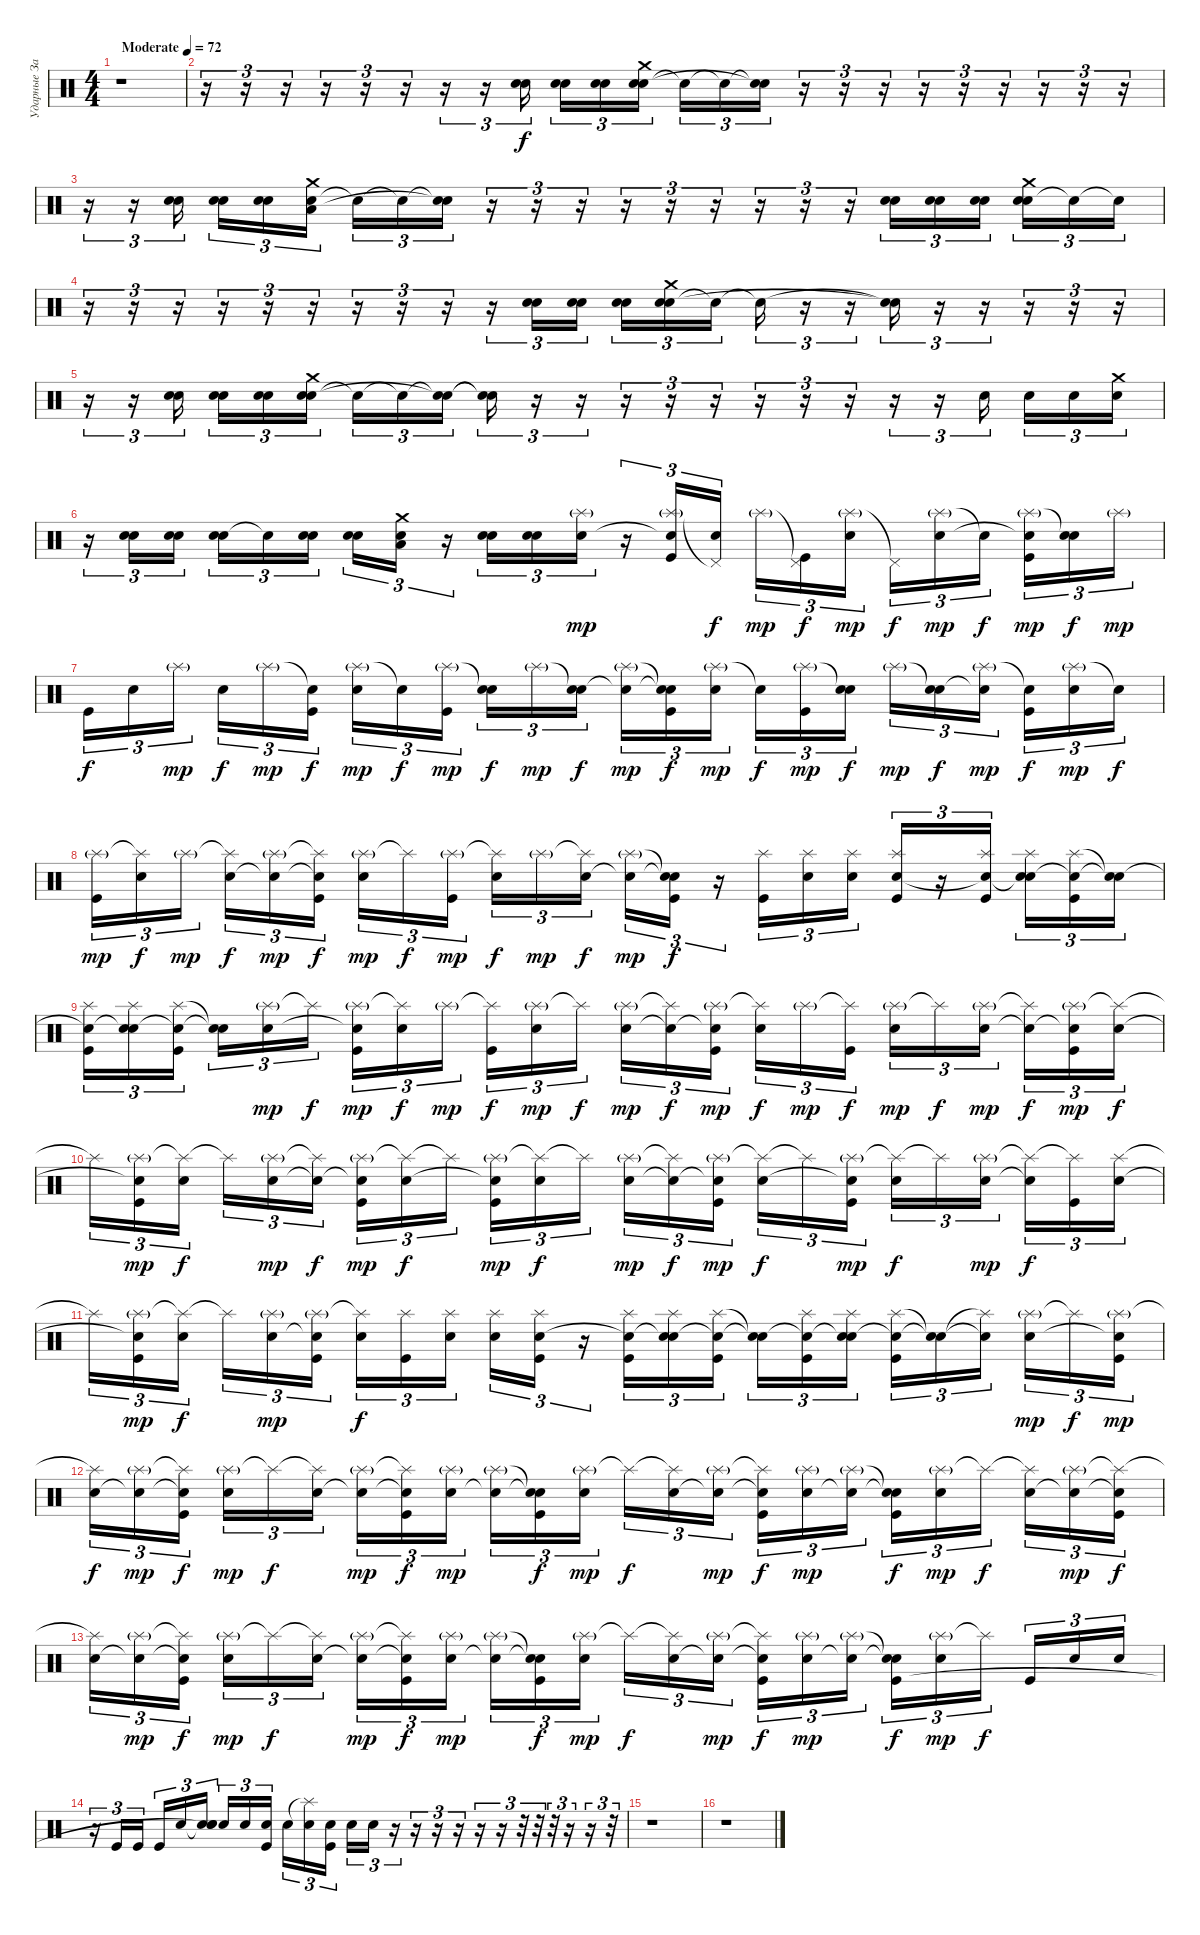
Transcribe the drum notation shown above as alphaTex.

\track ("Ударные Запарили(" "Ударные За") {instrument percussion}
\staff {score}
\articulation defaults
\ts (4 4)
\tempo (72 "Moderate")
\clef neutral
\ks c
r.1{dy f} |
r.16{tu (3 2)} r.16{tu (3 2)} r.16{tu (3 2)} r.16{tu (3 2)} r.16{tu (3 2)} r.16{tu (3 2)} r.16{tu (3 2)} r.16{tu (3 2)} ("Electric Snare (hit)" "Snare (hit) 2").16{tu (3 2) beam splitsecondary} ("Snare (hit) 2" "Electric Snare (hit)").16{tu (3 2)} ("Electric Snare (hit)" "Snare (hit) 2").16{tu (3 2)} ("Snare (hit) 2" "Electric Snare (hit)" "Crash medium (hit)").16{tu (3 2)} "Snare (hit)"{t}.16{tu (3 2)} "Snare (hit)"{t}.16{tu (3 2)} ("Snare (hit)"{t} "Snare (hit)"{t}).16{tu (3 2)} r.16{tu (3 2)} r.16{tu (3 2)} r.16{tu (3 2)} r.16{tu (3 2)} r.16{tu (3 2)} r.16{tu (3 2)} r.16{tu (3 2)} r.16{tu (3 2)} r.16{tu (3 2)} |
r.16{tu (3 2)} r.16{tu (3 2)} ("Snare (hit) 2" "Electric Snare (hit)").16{tu (3 2) beam splitsecondary} ("Electric Snare (hit)" "Snare (hit) 2").16{tu (3 2)} ("Snare (hit) 2" "Electric Snare (hit)").16{tu (3 2)} ("Electric Snare (hit)" "Low Tom (hit)" "Crash medium (hit)").16{tu (3 2)} "Snare (hit)"{t}.16{tu (3 2)} "Snare (hit)"{t}.16{tu (3 2)} ("Snare (hit)"{t} "Snare (hit)"{t}).16{tu (3 2)} r.16{tu (3 2)} r.16{tu (3 2)} r.16{tu (3 2)} r.16{tu (3 2)} r.16{tu (3 2)} r.16{tu (3 2)} r.16{tu (3 2)} r.16{tu (3 2)} r.16{tu (3 2)} ("Electric Snare (hit)" "Snare (hit) 2").16{tu (3 2)} ("Snare (hit) 2" "Electric Snare (hit)").16{tu (3 2)} ("Electric Snare (hit)" "Snare (hit) 2").16{tu (3 2) beam splitsecondary} ("Electric Snare (hit)" "Snare (hit) 2" "Crash medium (hit)").16{tu (3 2)} "Snare (hit)"{t}.16{tu (3 2)} "Snare (hit)"{t}.16{tu (3 2)} |
r.16{tu (3 2)} r.16{tu (3 2)} r.16{tu (3 2)} r.16{tu (3 2)} r.16{tu (3 2)} r.16{tu (3 2)} r.16{tu (3 2)} r.16{tu (3 2)} r.16{tu (3 2)} r.16{tu (3 2)} ("Electric Snare (hit)" "Snare (hit) 2").16{tu (3 2)} ("Electric Snare (hit)" "Snare (hit) 2").16{tu (3 2)} ("Snare (hit) 2" "Electric Snare (hit)").16{tu (3 2)} ("Electric Snare (hit)" "Hand Clap (hit)" "Crash medium (hit)").16{tu (3 2)} "Snare (hit)"{t}.16{tu (3 2) beam splitsecondary} "Snare (hit)"{t}.16{tu (3 2)} r.16{tu (3 2)} r.16{tu (3 2)} ("Snare (hit)"{t} "Snare (hit)"{t}).16{tu (3 2)} r.16{tu (3 2)} r.16{tu (3 2)} r.16{tu (3 2)} r.16{tu (3 2)} r.16{tu (3 2)} |
r.16{tu (3 2)} r.16{tu (3 2)} ("Electric Snare (hit)" "Snare (hit) 2").16{tu (3 2) beam splitsecondary} ("Electric Snare (hit)" "Snare (hit) 2").16{tu (3 2)} ("Snare (hit) 2" "Electric Snare (hit)").16{tu (3 2)} ("Electric Snare (hit)" "Snare (hit) 2" "Crash medium (hit)").16{tu (3 2)} "Snare (hit)"{t}.16{tu (3 2)} "Snare (hit)"{t}.16{tu (3 2)} ("Snare (hit)"{t} "Snare (hit)"{t}).16{tu (3 2) beam splitsecondary} ("Snare (hit)"{t} "Snare (hit)"{t}).16{tu (3 2)} r.16{tu (3 2)} r.16{tu (3 2)} r.16{tu (3 2)} r.16{tu (3 2)} r.16{tu (3 2)} r.16{tu (3 2)} r.16{tu (3 2)} r.16{tu (3 2)} r.16{tu (3 2)} r.16{tu (3 2)} "Electric Snare (hit)".16{tu (3 2) beam splitsecondary} "Electric Snare (hit)".16{tu (3 2)} "Snare (hit) 2".16{tu (3 2)} ("Electric Snare (hit)" "Crash medium (hit)").16{tu (3 2)} |
r.16{tu (3 2)} ("Electric Snare (hit)" "Snare (hit) 2").16{tu (3 2)} ("Electric Snare (hit)" "Snare (hit) 2").16{tu (3 2) beam splitsecondary} ("Snare (hit) 2" "Electric Snare (hit)").16{tu (3 2)} "Electric Snare (hit)"{t}.16{tu (3 2)} ("Electric Snare (hit)" "Snare (hit) 2").16{tu (3 2)} ("Electric Snare (hit)" "Snare (hit) 2").16{tu (3 2)} ("Electric Snare (hit)" "Low Floor Tom (hit)" "Crash medium (hit)").16{tu (3 2)} r.16{tu (3 2)} ("Electric Snare (hit)" "Snare (hit) 2").16{tu (3 2)} ("Electric Snare (hit)" "Snare (hit) 2").16{tu (3 2)} ("Splash (hit)"{g} "Snare (hit) 2").16{tu (3 2) dy mp} r.16{tu (3 2)} ("Splash (hit)"{g} "Snare (hit) 2"{t} "Kick (hit)").16{tu (3 2)} ("Pedal Hi-Hat (hit)"{t} "Snare (hit) 2").16{tu (3 2) dy f beam splitsecondary} "Splash (hit)"{g}.16{tu (3 2) dy mp} ("Pedal Hi-Hat (hit)"{t} "Kick (hit)").16{tu (3 2) dy f} ("Splash (hit)"{g} "Snare (hit) 2").16{tu (3 2) dy mp} "Pedal Hi-Hat (hit)"{t}.16{tu (3 2) dy f} ("Splash (hit)"{g} "Snare (hit) 2").16{tu (3 2) dy mp} "Snare (hit) 2"{t}.16{tu (3 2) dy f beam splitsecondary} ("Splash (hit)"{g} "Snare (hit) 2"{t} "Kick (hit)").16{tu (3 2) dy mp} ("Snare (hit)"{t} "Snare (hit) 2").16{tu (3 2) dy f} "Splash (hit)"{g}.16{tu (3 2) dy mp} |
"Kick (hit)".16{tu (3 2) dy f} "Snare (hit) 2".16{tu (3 2)} "Splash (hit)"{g}.16{tu (3 2) dy mp beam splitsecondary} "Snare (hit) 2".16{tu (3 2) dy f} "Splash (hit)"{g}.16{tu (3 2) dy mp} ("Snare (hit) 2"{t} "Kick (hit)").16{tu (3 2) dy f} ("Splash (hit)"{g} "Snare (hit) 2").16{tu (3 2) dy mp} "Snare (hit)"{t}.16{tu (3 2) dy f} ("Splash (hit)"{g} "Kick (hit)").16{tu (3 2) dy mp beam splitsecondary} ("Snare (hit)"{t} "Snare (hit) 2").16{tu (3 2) dy f} "Splash (hit)"{g}.16{tu (3 2) dy mp} ("Snare (hit)"{t} "Snare (hit) 2").16{tu (3 2) dy f} ("Splash (hit)"{g} "Snare (hit) 2"{t}).16{tu (3 2) dy mp} ("Snare (hit)"{t} "Snare (hit) 2"{t} "Kick (hit)").16{tu (3 2) dy f} ("Splash (hit)"{g} "Snare (hit) 2").16{tu (3 2) dy mp beam splitsecondary} "Snare (hit)"{t}.16{tu (3 2) dy f} ("Splash (hit)"{g} "Kick (hit)").16{tu (3 2) dy mp} ("Snare (hit)"{t} "Snare (hit) 2").16{tu (3 2) dy f} "Splash (hit)"{g}.16{tu (3 2) dy mp} ("Snare (hit)"{t} "Snare (hit) 2").16{tu (3 2) dy f} ("Splash (hit)"{g} "Snare (hit) 2"{t}).16{tu (3 2) dy mp beam splitsecondary} ("Snare (hit) 2"{t} "Kick (hit)").16{tu (3 2) dy f} ("Splash (hit)"{g} "Snare (hit) 2").16{tu (3 2) dy mp} "Snare (hit)"{t}.16{tu (3 2) dy f} |
("Splash (hit)"{g} "Kick (hit)").16{tu (3 2) dy mp} ("Splash (hit)"{t} "Snare (hit) 2").16{tu (3 2) dy f} "Splash (hit)"{g}.16{tu (3 2) dy mp beam splitsecondary} ("Splash (hit)"{t} "Snare (hit) 2").16{tu (3 2) dy f} ("Splash (hit)"{g} "Snare (hit) 2"{t}).16{tu (3 2) dy mp} ("Splash (hit)"{t} "Snare (hit) 2"{t} "Kick (hit)").16{tu (3 2) dy f} ("Splash (hit)"{g} "Snare (hit) 2").16{tu (3 2) dy mp} "Splash (hit)"{t}.16{tu (3 2) dy f} ("Splash (hit)"{g} "Kick (hit)").16{tu (3 2) dy mp beam splitsecondary} ("Splash (hit)"{t} "Snare (hit) 2").16{tu (3 2) dy f} "Splash (hit)"{g}.16{tu (3 2) dy mp} ("Splash (hit)"{t} "Snare (hit) 2").16{tu (3 2) dy f} ("Splash (hit)"{g} "Snare (hit) 2"{t}).16{tu (3 2) dy mp} ("Snare (hit)"{t} "Snare (hit) 2"{t} "Kick (hit)").16{tu (3 2) dy f} r.16{tu (3 2)} ("Splash (hit)" "Kick (hit)").16{tu (3 2)} ("Splash (hit)" "Snare (hit) 2").16{tu (3 2)} ("Splash (hit)" "Snare (hit) 2").16{tu (3 2)} ("Splash (hit)" "Snare (hit) 2" "Kick (hit)").16{tu (3 2)} r.16{tu (3 2)} ("Splash (hit)" "Snare (hit) 2"{t} "Kick (hit)").16{tu (3 2) beam splitsecondary} ("Splash (hit)" "Snare (hit) 2"{t} "Snare (hit) 2").16{tu (3 2)} ("Splash (hit)" "Snare (hit) 2"{t} "Kick (hit)").16{tu (3 2)} ("Snare (hit)"{t} "Snare (hit)"{t}).16{tu (3 2)} |
("Splash (hit)" "Snare (hit) 2"{t} "Kick (hit)").16{tu (3 2)} ("Splash (hit)" "Snare (hit) 2"{t} "Snare (hit) 2").16{tu (3 2)} ("Splash (hit)" "Snare (hit) 2"{t} "Kick (hit)").16{tu (3 2) beam splitsecondary} ("Snare (hit)"{t} "Snare (hit)"{t}).16{tu (3 2)} ("Splash (hit)"{g} "Snare (hit) 2").16{tu (3 2) dy mp} "Splash (hit)"{t}.16{tu (3 2) dy f} ("Splash (hit)"{g} "Snare (hit) 2"{t} "Kick (hit)").16{tu (3 2) dy mp} ("Splash (hit)"{t} "Snare (hit) 2").16{tu (3 2) dy f} "Splash (hit)"{g}.16{tu (3 2) dy mp beam splitsecondary} ("Splash (hit)"{t} "Kick (hit)").16{tu (3 2) dy f} ("Splash (hit)"{g} "Snare (hit) 2").16{tu (3 2) dy mp} "Splash (hit)"{t}.16{tu (3 2) dy f} ("Splash (hit)"{g} "Snare (hit) 2").16{tu (3 2) dy mp} ("Splash (hit)"{t} "Snare (hit) 2"{t}).16{tu (3 2) dy f} ("Splash (hit)"{g} "Snare (hit) 2"{t} "Kick (hit)").16{tu (3 2) dy mp beam splitsecondary} ("Splash (hit)"{t} "Snare (hit) 2").16{tu (3 2) dy f} "Splash (hit)"{g}.16{tu (3 2) dy mp} ("Splash (hit)"{t} "Kick (hit)").16{tu (3 2) dy f} ("Splash (hit)"{g} "Snare (hit) 2").16{tu (3 2) dy mp} "Splash (hit)"{t}.16{tu (3 2) dy f} ("Splash (hit)"{g} "Snare (hit) 2").16{tu (3 2) dy mp beam splitsecondary} ("Splash (hit)"{t} "Snare (hit) 2"{t}).16{tu (3 2) dy f} ("Splash (hit)"{g} "Snare (hit) 2"{t} "Kick (hit)").16{tu (3 2) dy mp} ("Splash (hit)"{t} "Snare (hit) 2").16{tu (3 2) dy f} |
"Splash (hit)"{t}.16{tu (3 2)} ("Splash (hit)"{g} "Snare (hit) 2"{t} "Kick (hit)").16{tu (3 2) dy mp} ("Splash (hit)"{t} "Snare (hit) 2").16{tu (3 2) dy f beam splitsecondary} "Splash (hit)"{t}.16{tu (3 2)} ("Splash (hit)"{g} "Snare (hit) 2").16{tu (3 2) dy mp} ("Splash (hit)"{t} "Snare (hit) 2"{t}).16{tu (3 2) dy f} ("Splash (hit)"{g} "Snare (hit) 2"{t} "Kick (hit)").16{tu (3 2) dy mp} ("Splash (hit)"{t} "Snare (hit) 2").16{tu (3 2) dy f} "Splash (hit)"{t}.16{tu (3 2) beam splitsecondary} ("Splash (hit)"{g} "Snare (hit) 2"{t} "Kick (hit)").16{tu (3 2) dy mp} ("Splash (hit)"{t} "Snare (hit) 2").16{tu (3 2) dy f} "Splash (hit)"{t}.16{tu (3 2)} ("Splash (hit)"{g} "Snare (hit) 2").16{tu (3 2) dy mp} ("Splash (hit)"{t} "Snare (hit) 2"{t}).16{tu (3 2) dy f} ("Splash (hit)"{g} "Snare (hit) 2"{t} "Kick (hit)").16{tu (3 2) dy mp beam splitsecondary} ("Splash (hit)"{t} "Snare (hit) 2").16{tu (3 2) dy f} "Splash (hit)"{t}.16{tu (3 2)} ("Splash (hit)"{g} "Snare (hit) 2"{t} "Kick (hit)").16{tu (3 2) dy mp} ("Splash (hit)"{t} "Snare (hit) 2").16{tu (3 2) dy f} "Splash (hit)"{t}.16{tu (3 2)} ("Splash (hit)"{g} "Snare (hit) 2").16{tu (3 2) dy mp beam splitsecondary} ("Splash (hit)"{t} "Snare (hit) 2"{t}).16{tu (3 2) dy f} ("Splash (hit)"{t} "Kick (hit)").16{tu (3 2)} ("Splash (hit)" "Snare (hit) 2").16{tu (3 2)} |
"Splash (hit)"{t}.16{tu (3 2)} ("Splash (hit)"{g} "Snare (hit) 2"{t} "Kick (hit)").16{tu (3 2) dy mp} ("Splash (hit)"{t} "Snare (hit) 2").16{tu (3 2) dy f beam splitsecondary} "Splash (hit)"{t}.16{tu (3 2)} ("Splash (hit)"{g} "Snare (hit) 2").16{tu (3 2) dy mp} ("Splash (hit)"{g} "Snare (hit) 2"{t} "Kick (hit)").16{tu (3 2)} ("Splash (hit)"{t} "Snare (hit) 2").16{tu (3 2) dy f} ("Splash (hit)" "Kick (hit)").16{tu (3 2)} ("Splash (hit)" "Snare (hit) 2").16{tu (3 2) beam splitsecondary} ("Splash (hit)" "Snare (hit) 2").16{tu (3 2)} ("Splash (hit)" "Snare (hit) 2" "Kick (hit)").16{tu (3 2)} r.16{tu (3 2)} ("Splash (hit)" "Snare (hit) 2"{t} "Kick (hit)").16{tu (3 2)} ("Splash (hit)" "Snare (hit) 2"{t} "Snare (hit) 2").16{tu (3 2)} ("Splash (hit)" "Snare (hit) 2"{t} "Kick (hit)").16{tu (3 2) beam splitsecondary} ("Snare (hit)"{t} "Snare (hit)"{t}).16{tu (3 2)} ("Splash (hit)" "Snare (hit) 2"{t} "Kick (hit)").16{tu (3 2)} ("Splash (hit)" "Snare (hit) 2"{t} "Snare (hit) 2").16{tu (3 2)} ("Splash (hit)" "Snare (hit) 2"{t} "Kick (hit)").16{tu (3 2)} ("Snare (hit)"{t} "Snare (hit)"{t}).16{tu (3 2)} ("Splash (hit)"{t} "Snare (hit) 2"{t}).16{tu (3 2) beam splitsecondary} ("Splash (hit)"{g} "Snare (hit) 2").16{tu (3 2) dy mp} "Splash (hit)"{t}.16{tu (3 2) dy f} ("Splash (hit)"{g} "Snare (hit) 2"{t} "Kick (hit)").16{tu (3 2) dy mp} |
("Splash (hit)"{t} "Snare (hit) 2").16{tu (3 2) dy f} ("Splash (hit)"{g} "Snare (hit) 2"{t}).16{tu (3 2) dy mp} ("Splash (hit)"{t} "Snare (hit) 2"{t} "Kick (hit)").16{tu (3 2) dy f beam splitsecondary} ("Splash (hit)"{g} "Snare (hit) 2").16{tu (3 2) dy mp} "Splash (hit)"{t}.16{tu (3 2) dy f} ("Splash (hit)"{t} "Snare (hit) 2").16{tu (3 2)} ("Splash (hit)"{g} "Snare (hit) 2"{t}).16{tu (3 2) dy mp} ("Splash (hit)"{t} "Snare (hit) 2"{t} "Kick (hit)").16{tu (3 2) dy f} ("Splash (hit)"{g} "Snare (hit) 2").16{tu (3 2) dy mp beam splitsecondary} ("Splash (hit)"{g} "Snare (hit) 2"{t}).16{tu (3 2)} ("Snare (hit)"{t} "Snare (hit) 2"{t} "Kick (hit)").16{tu (3 2) dy f} ("Splash (hit)"{g} "Snare (hit) 2").16{tu (3 2) dy mp} "Splash (hit)"{t}.16{tu (3 2) dy f} ("Splash (hit)"{t} "Snare (hit) 2").16{tu (3 2)} ("Splash (hit)"{g} "Snare (hit) 2"{t}).16{tu (3 2) dy mp beam splitsecondary} ("Splash (hit)"{t} "Snare (hit) 2"{t} "Kick (hit)").16{tu (3 2) dy f} ("Splash (hit)"{g} "Snare (hit) 2").16{tu (3 2) dy mp} ("Splash (hit)"{g} "Snare (hit) 2"{t}).16{tu (3 2)} ("Snare (hit)"{t} "Snare (hit) 2"{t} "Kick (hit)").16{tu (3 2) dy f} ("Splash (hit)"{g} "Snare (hit) 2").16{tu (3 2) dy mp} "Splash (hit)"{t}.16{tu (3 2) dy f beam splitsecondary} ("Splash (hit)"{t} "Snare (hit) 2").16{tu (3 2)} ("Splash (hit)"{g} "Snare (hit) 2"{t}).16{tu (3 2) dy mp} ("Splash (hit)"{t} "Snare (hit) 2"{t} "Kick (hit)").16{tu (3 2) dy f} |
("Splash (hit)"{t} "Snare (hit) 2").16{tu (3 2)} ("Splash (hit)"{g} "Snare (hit) 2"{t}).16{tu (3 2) dy mp} ("Splash (hit)"{t} "Snare (hit) 2"{t} "Kick (hit)").16{tu (3 2) dy f beam splitsecondary} ("Splash (hit)"{g} "Snare (hit) 2").16{tu (3 2) dy mp} "Splash (hit)"{t}.16{tu (3 2) dy f} ("Splash (hit)"{t} "Snare (hit) 2").16{tu (3 2)} ("Splash (hit)"{g} "Snare (hit) 2"{t}).16{tu (3 2) dy mp} ("Splash (hit)"{t} "Snare (hit) 2"{t} "Kick (hit)").16{tu (3 2) dy f} ("Splash (hit)"{g} "Snare (hit) 2").16{tu (3 2) dy mp beam splitsecondary} ("Splash (hit)"{g} "Snare (hit) 2"{t}).16{tu (3 2)} ("Snare (hit)"{t} "Snare (hit) 2"{t} "Kick (hit)").16{tu (3 2) dy f} ("Splash (hit)"{g} "Snare (hit) 2").16{tu (3 2) dy mp} "Splash (hit)"{t}.16{tu (3 2) dy f} ("Splash (hit)"{t} "Snare (hit) 2").16{tu (3 2)} ("Splash (hit)"{g} "Snare (hit) 2"{t}).16{tu (3 2) dy mp beam splitsecondary} ("Splash (hit)"{t} "Snare (hit) 2"{t} "Kick (hit)").16{tu (3 2) dy f} ("Splash (hit)"{g} "Snare (hit) 2").16{tu (3 2) dy mp} ("Splash (hit)"{g} "Snare (hit) 2"{t}).16{tu (3 2)} ("Snare (hit)"{t} "Snare (hit) 2"{t} "Kick (hit)").16{tu (3 2) dy f} ("Splash (hit)"{g} "Snare (hit) 2").16{tu (3 2) dy mp} "Splash (hit)"{t}.16{tu (3 2) dy f beam splitsecondary} "Kick (hit)".16{tu (3 2)} "Snare (hit) 2".16{tu (3 2)} "Snare (hit) 2".16{tu (3 2)} |
r.16{tu (3 2)} "Kick (hit)".16{tu (3 2)} "Kick (hit)".16{tu (3 2) beam splitsecondary} "Kick (hit)".16{tu (3 2)} "Snare (hit) 2".16{tu (3 2)} ("Snare (hit)"{t} "Snare (hit) 2" "Snare (hit)"{t}).16{tu (3 2)} "Snare (hit) 2".16{tu (3 2)} "Snare (hit) 2".16{tu (3 2)} ("Snare (hit) 2" "Kick (hit)").16{tu (3 2) beam splitsecondary} "Snare (hit) 2".16{tu (3 2)} ("Splash (hit)"{t} "Snare (hit) 2").16{tu (3 2)} ("Snare (hit) 2" "Kick (hit)").16{tu (3 2)} "Snare (hit) 2".16{tu (3 2)} "Snare (hit) 2".16{tu (3 2)} r.16{tu (3 2)} r.16{tu (3 2)} r.16{tu (3 2)} r.16{tu (3 2)} r.16{tu (3 2)} r.16{tu (3 2)} r.32{tu (3 2)} r.32{tu (3 2)} r.32{tu (3 2)} r.16{tu (3 2)} r.16{tu (3 2)} r.32{tu (3 2)} |
r.1 |
r.1
